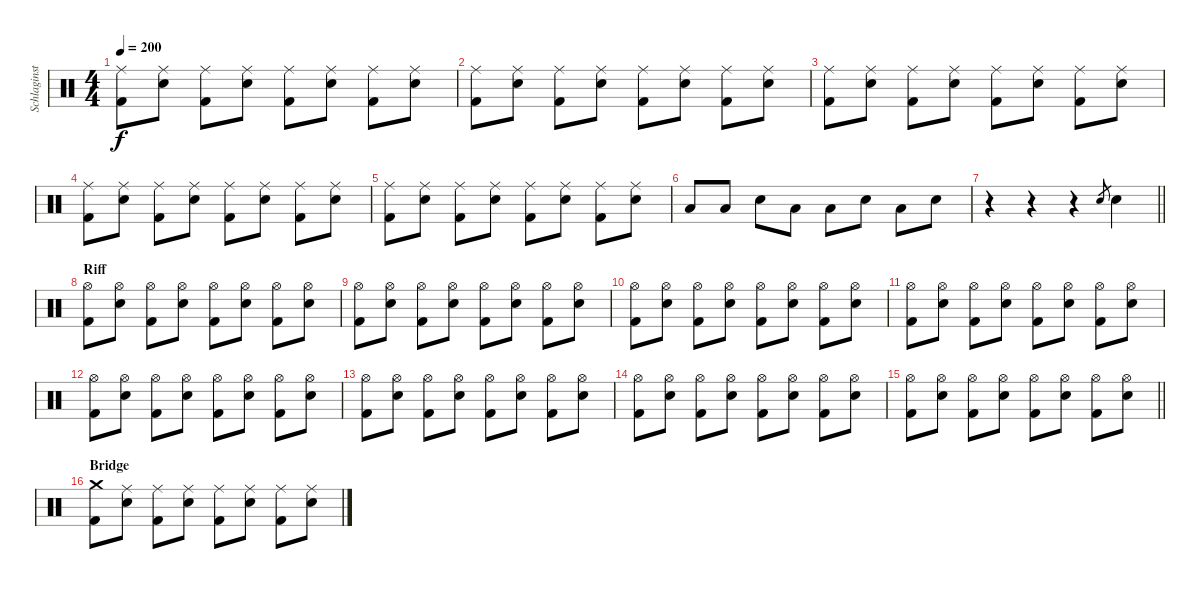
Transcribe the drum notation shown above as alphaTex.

\track ("Schlaginstrumente - Auswahl" "Schlaginst") {instrument percussion}
\staff {score}
\articulation defaults
\ts (4 4)
\tempo 200
\clef neutral
\ks c
("Ride (middle)" "Kick (hit) 2").8{dy f} ("Ride (middle)" "Electric Snare (hit)").8 ("Ride (middle)" "Kick (hit) 2").8 ("Ride (middle)" "Electric Snare (hit)").8 ("Ride (middle)" "Kick (hit) 2").8 ("Ride (middle)" "Electric Snare (hit)").8 ("Ride (middle)" "Kick (hit) 2").8 ("Ride (middle)" "Electric Snare (hit)").8 |
("Ride (middle)" "Kick (hit) 2").8 ("Ride (middle)" "Electric Snare (hit)").8 ("Ride (middle)" "Kick (hit) 2").8 ("Ride (middle)" "Electric Snare (hit)").8 ("Ride (middle)" "Kick (hit) 2").8 ("Ride (middle)" "Electric Snare (hit)").8 ("Ride (middle)" "Kick (hit) 2").8 ("Ride (middle)" "Electric Snare (hit)").8 |
("Ride (middle)" "Kick (hit) 2").8 ("Ride (middle)" "Electric Snare (hit)").8 ("Ride (middle)" "Kick (hit) 2").8 ("Ride (middle)" "Electric Snare (hit)").8 ("Ride (middle)" "Kick (hit) 2").8 ("Ride (middle)" "Electric Snare (hit)").8 ("Ride (middle)" "Kick (hit) 2").8 ("Ride (middle)" "Electric Snare (hit)").8 |
("Ride (middle)" "Kick (hit) 2").8 ("Ride (middle)" "Electric Snare (hit)").8 ("Ride (middle)" "Kick (hit) 2").8 ("Ride (middle)" "Electric Snare (hit)").8 ("Ride (middle)" "Kick (hit) 2").8 ("Ride (middle)" "Electric Snare (hit)").8 ("Ride (middle)" "Kick (hit) 2").8 ("Ride (middle)" "Electric Snare (hit)").8 |
("Ride (middle)" "Kick (hit) 2").8 ("Ride (middle)" "Electric Snare (hit)").8 ("Ride (middle)" "Kick (hit) 2").8 ("Ride (middle)" "Electric Snare (hit)").8 ("Ride (middle)" "Kick (hit) 2").8 ("Ride (middle)" "Electric Snare (hit)").8 ("Ride (middle)" "Kick (hit) 2").8 ("Ride (middle)" "Electric Snare (hit)").8 |
"Low Tom (hit)".8 "Low Tom (hit)".8 "Electric Snare (hit)".8 "Low Tom (hit)".8 "Low Tom (hit)".8 "Electric Snare (hit)".8 "Low Tom (hit)".8 "Electric Snare (hit)".8 |
\barLineRight lightlight
r.4 r.4 r.4 "Electric Snare (hit)".8{gr} "Electric Snare (hit)".4 |
\section ("" "Riff")
("Hi-Hat (open)" "Kick (hit) 2").8 ("Hi-Hat (open)" "Electric Snare (hit)").8 ("Hi-Hat (open)" "Kick (hit) 2").8 ("Hi-Hat (open)" "Electric Snare (hit)").8 ("Hi-Hat (open)" "Kick (hit) 2").8 ("Hi-Hat (open)" "Electric Snare (hit)").8 ("Hi-Hat (open)" "Kick (hit) 2").8 ("Hi-Hat (open)" "Electric Snare (hit)").8 |
("Hi-Hat (open)" "Kick (hit) 2").8 ("Hi-Hat (open)" "Electric Snare (hit)").8 ("Hi-Hat (open)" "Kick (hit) 2").8 ("Hi-Hat (open)" "Electric Snare (hit)").8 ("Hi-Hat (open)" "Kick (hit) 2").8 ("Hi-Hat (open)" "Electric Snare (hit)").8 ("Hi-Hat (open)" "Kick (hit) 2").8 ("Hi-Hat (open)" "Electric Snare (hit)").8 |
("Hi-Hat (open)" "Kick (hit) 2").8 ("Hi-Hat (open)" "Electric Snare (hit)").8 ("Hi-Hat (open)" "Kick (hit) 2").8 ("Hi-Hat (open)" "Electric Snare (hit)").8 ("Hi-Hat (open)" "Kick (hit) 2").8 ("Hi-Hat (open)" "Electric Snare (hit)").8 ("Hi-Hat (open)" "Kick (hit) 2").8 ("Hi-Hat (open)" "Electric Snare (hit)").8 |
("Hi-Hat (open)" "Kick (hit) 2").8 ("Hi-Hat (open)" "Electric Snare (hit)").8 ("Hi-Hat (open)" "Kick (hit) 2").8 ("Hi-Hat (open)" "Electric Snare (hit)").8 ("Hi-Hat (open)" "Kick (hit) 2").8 ("Hi-Hat (open)" "Electric Snare (hit)").8 ("Hi-Hat (open)" "Kick (hit) 2").8 ("Hi-Hat (open)" "Electric Snare (hit)").8 |
("Hi-Hat (open)" "Kick (hit) 2").8 ("Hi-Hat (open)" "Electric Snare (hit)").8 ("Hi-Hat (open)" "Kick (hit) 2").8 ("Hi-Hat (open)" "Electric Snare (hit)").8 ("Hi-Hat (open)" "Kick (hit) 2").8 ("Hi-Hat (open)" "Electric Snare (hit)").8 ("Hi-Hat (open)" "Kick (hit) 2").8 ("Hi-Hat (open)" "Electric Snare (hit)").8 |
("Hi-Hat (open)" "Kick (hit) 2").8 ("Hi-Hat (open)" "Electric Snare (hit)").8 ("Hi-Hat (open)" "Kick (hit) 2").8 ("Hi-Hat (open)" "Electric Snare (hit)").8 ("Hi-Hat (open)" "Kick (hit) 2").8 ("Hi-Hat (open)" "Electric Snare (hit)").8 ("Hi-Hat (open)" "Kick (hit) 2").8 ("Hi-Hat (open)" "Electric Snare (hit)").8 |
("Hi-Hat (open)" "Kick (hit) 2").8 ("Hi-Hat (open)" "Electric Snare (hit)").8 ("Hi-Hat (open)" "Kick (hit) 2").8 ("Hi-Hat (open)" "Electric Snare (hit)").8 ("Hi-Hat (open)" "Kick (hit) 2").8 ("Hi-Hat (open)" "Electric Snare (hit)").8 ("Hi-Hat (open)" "Kick (hit) 2").8 ("Hi-Hat (open)" "Electric Snare (hit)").8 |
\barLineRight lightlight
("Hi-Hat (open)" "Kick (hit) 2").8 ("Hi-Hat (open)" "Electric Snare (hit)").8 ("Hi-Hat (open)" "Kick (hit) 2").8 ("Hi-Hat (open)" "Electric Snare (hit)").8 ("Hi-Hat (open)" "Kick (hit) 2").8 ("Hi-Hat (open)" "Electric Snare (hit)").8 ("Hi-Hat (open)" "Kick (hit) 2").8 ("Hi-Hat (open)" "Electric Snare (hit)").8 |
\section ("" "Bridge")
("Crash medium (hit)" "Kick (hit) 2").8 ("Ride (middle)" "Electric Snare (hit)").8 ("Ride (middle)" "Kick (hit) 2").8 ("Ride (middle)" "Electric Snare (hit)").8 ("Ride (middle)" "Kick (hit) 2").8 ("Ride (middle)" "Electric Snare (hit)").8 ("Ride (middle)" "Kick (hit) 2").8 ("Ride (middle)" "Electric Snare (hit)").8
